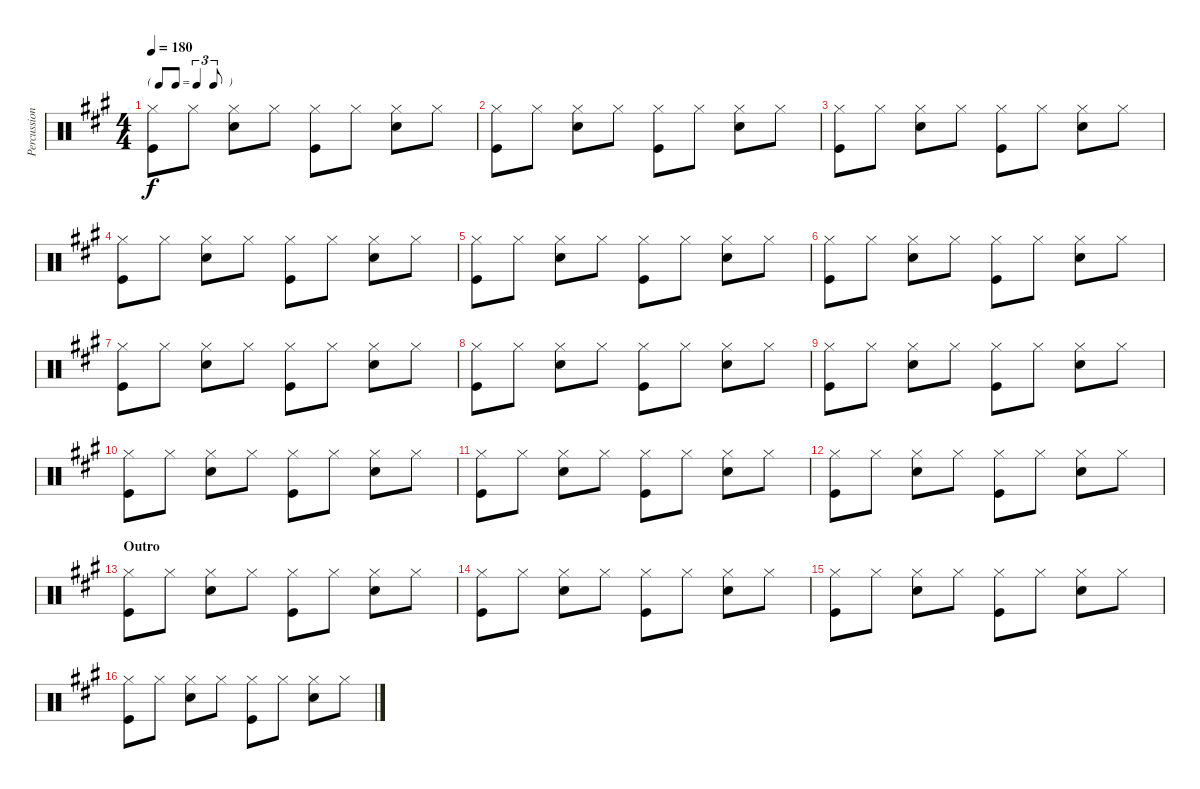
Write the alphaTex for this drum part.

\track ("Percussion" "Percussion") {instrument percussion}
\staff {score}
\articulation defaults
\ts (4 4)
\tf triplet8th
\tempo 180
\clef neutral
\ks a
("Hi-Hat (closed)" "Kick (hit)").8{dy f} "Hi-Hat (closed)".8 ("Hi-Hat (closed)" "Snare (hit) 2").8 "Hi-Hat (closed)".8 ("Hi-Hat (closed)" "Kick (hit)").8 "Hi-Hat (closed)".8 ("Hi-Hat (closed)" "Snare (hit) 2").8 "Hi-Hat (closed)".8 |
("Hi-Hat (closed)" "Kick (hit)").8 "Hi-Hat (closed)".8 ("Hi-Hat (closed)" "Snare (hit) 2").8 "Hi-Hat (closed)".8 ("Hi-Hat (closed)" "Kick (hit)").8 "Hi-Hat (closed)".8 ("Hi-Hat (closed)" "Snare (hit) 2").8 "Hi-Hat (closed)".8 |
("Hi-Hat (closed)" "Kick (hit)").8 "Hi-Hat (closed)".8 ("Hi-Hat (closed)" "Snare (hit) 2").8 "Hi-Hat (closed)".8 ("Hi-Hat (closed)" "Kick (hit)").8 "Hi-Hat (closed)".8 ("Hi-Hat (closed)" "Snare (hit) 2").8 "Hi-Hat (closed)".8 |
("Hi-Hat (closed)" "Kick (hit)").8 "Hi-Hat (closed)".8 ("Hi-Hat (closed)" "Snare (hit) 2").8 "Hi-Hat (closed)".8 ("Hi-Hat (closed)" "Kick (hit)").8 "Hi-Hat (closed)".8 ("Hi-Hat (closed)" "Snare (hit) 2").8 "Hi-Hat (closed)".8 |
("Hi-Hat (closed)" "Kick (hit)").8 "Hi-Hat (closed)".8 ("Hi-Hat (closed)" "Snare (hit) 2").8 "Hi-Hat (closed)".8 ("Hi-Hat (closed)" "Kick (hit)").8 "Hi-Hat (closed)".8 ("Hi-Hat (closed)" "Snare (hit) 2").8 "Hi-Hat (closed)".8 |
("Hi-Hat (closed)" "Kick (hit)").8 "Hi-Hat (closed)".8 ("Hi-Hat (closed)" "Snare (hit) 2").8 "Hi-Hat (closed)".8 ("Hi-Hat (closed)" "Kick (hit)").8 "Hi-Hat (closed)".8 ("Hi-Hat (closed)" "Snare (hit) 2").8 "Hi-Hat (closed)".8 |
("Hi-Hat (closed)" "Kick (hit)").8 "Hi-Hat (closed)".8 ("Hi-Hat (closed)" "Snare (hit) 2").8 "Hi-Hat (closed)".8 ("Hi-Hat (closed)" "Kick (hit)").8 "Hi-Hat (closed)".8 ("Hi-Hat (closed)" "Snare (hit) 2").8 "Hi-Hat (closed)".8 |
("Hi-Hat (closed)" "Kick (hit)").8 "Hi-Hat (closed)".8 ("Hi-Hat (closed)" "Snare (hit) 2").8 "Hi-Hat (closed)".8 ("Hi-Hat (closed)" "Kick (hit)").8 "Hi-Hat (closed)".8 ("Hi-Hat (closed)" "Snare (hit) 2").8 "Hi-Hat (closed)".8 |
("Hi-Hat (closed)" "Kick (hit)").8 "Hi-Hat (closed)".8 ("Hi-Hat (closed)" "Snare (hit) 2").8 "Hi-Hat (closed)".8 ("Hi-Hat (closed)" "Kick (hit)").8 "Hi-Hat (closed)".8 ("Hi-Hat (closed)" "Snare (hit) 2").8 "Hi-Hat (closed)".8 |
("Hi-Hat (closed)" "Kick (hit)").8 "Hi-Hat (closed)".8 ("Hi-Hat (closed)" "Snare (hit) 2").8 "Hi-Hat (closed)".8 ("Hi-Hat (closed)" "Kick (hit)").8 "Hi-Hat (closed)".8 ("Hi-Hat (closed)" "Snare (hit) 2").8 "Hi-Hat (closed)".8 |
("Hi-Hat (closed)" "Kick (hit)").8 "Hi-Hat (closed)".8 ("Hi-Hat (closed)" "Snare (hit) 2").8 "Hi-Hat (closed)".8 ("Hi-Hat (closed)" "Kick (hit)").8 "Hi-Hat (closed)".8 ("Hi-Hat (closed)" "Snare (hit) 2").8 "Hi-Hat (closed)".8 |
("Hi-Hat (closed)" "Kick (hit)").8 "Hi-Hat (closed)".8 ("Hi-Hat (closed)" "Snare (hit) 2").8 "Hi-Hat (closed)".8 ("Hi-Hat (closed)" "Kick (hit)").8 "Hi-Hat (closed)".8 ("Hi-Hat (closed)" "Snare (hit) 2").8 "Hi-Hat (closed)".8 |
\section ("" "Outro")
("Hi-Hat (closed)" "Kick (hit)").8 "Hi-Hat (closed)".8 ("Hi-Hat (closed)" "Snare (hit) 2").8 "Hi-Hat (closed)".8 ("Hi-Hat (closed)" "Kick (hit)").8 "Hi-Hat (closed)".8 ("Hi-Hat (closed)" "Snare (hit) 2").8 "Hi-Hat (closed)".8 |
("Hi-Hat (closed)" "Kick (hit)").8 "Hi-Hat (closed)".8 ("Hi-Hat (closed)" "Snare (hit) 2").8 "Hi-Hat (closed)".8 ("Hi-Hat (closed)" "Kick (hit)").8 "Hi-Hat (closed)".8 ("Hi-Hat (closed)" "Snare (hit) 2").8 "Hi-Hat (closed)".8 |
("Hi-Hat (closed)" "Kick (hit)").8 "Hi-Hat (closed)".8 ("Hi-Hat (closed)" "Snare (hit) 2").8 "Hi-Hat (closed)".8 ("Hi-Hat (closed)" "Kick (hit)").8 "Hi-Hat (closed)".8 ("Hi-Hat (closed)" "Snare (hit) 2").8 "Hi-Hat (closed)".8 |
("Hi-Hat (closed)" "Kick (hit)").8 "Hi-Hat (closed)".8 ("Hi-Hat (closed)" "Snare (hit) 2").8 "Hi-Hat (closed)".8 ("Hi-Hat (closed)" "Kick (hit)").8 "Hi-Hat (closed)".8 ("Hi-Hat (closed)" "Snare (hit) 2").8 "Hi-Hat (closed)".8
